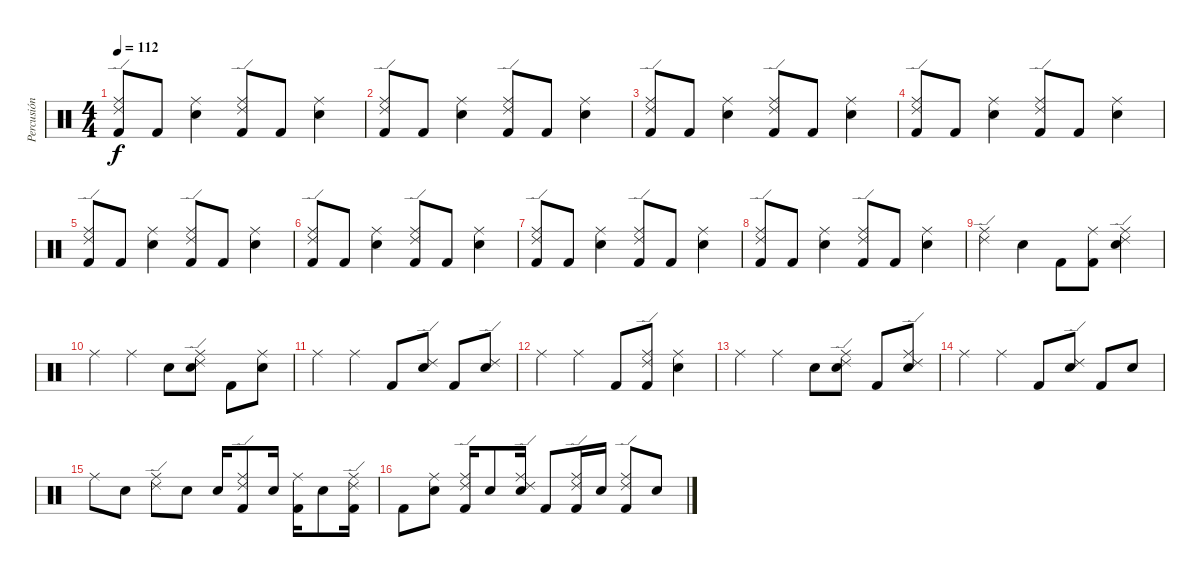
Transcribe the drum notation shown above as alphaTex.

\track ("Percusión" "Percusión") {instrument percussion}
\staff {score}
\articulation defaults
\ts (4 4)
\tempo 112
\clef neutral
\ks c
("Ride (edge) 2" "Ride (middle)" "Kick (hit) 2").8{dy f} "Kick (hit) 2".8 ("Ride (middle)" "Snare (hit) 2").4 ("Ride (edge) 2" "Ride (middle)" "Kick (hit) 2").8 "Kick (hit) 2".8 ("Ride (middle)" "Snare (hit) 2").4 |
("Ride (edge) 2" "Ride (middle)" "Kick (hit) 2").8 "Kick (hit) 2".8 ("Ride (middle)" "Snare (hit) 2").4 ("Ride (edge) 2" "Ride (middle)" "Kick (hit) 2").8 "Kick (hit) 2".8 ("Ride (middle)" "Snare (hit) 2").4 |
("Ride (edge) 2" "Ride (middle)" "Kick (hit) 2").8 "Kick (hit) 2".8 ("Ride (middle)" "Snare (hit) 2").4 ("Ride (edge) 2" "Ride (middle)" "Kick (hit) 2").8 "Kick (hit) 2".8 ("Ride (middle)" "Snare (hit) 2").4 |
("Ride (edge) 2" "Ride (middle)" "Kick (hit) 2").8 "Kick (hit) 2".8 ("Ride (middle)" "Snare (hit) 2").4 ("Ride (edge) 2" "Ride (middle)" "Kick (hit) 2").8 "Kick (hit) 2".8 ("Ride (middle)" "Snare (hit) 2").4 |
("Ride (edge) 2" "Ride (middle)" "Kick (hit) 2").8 "Kick (hit) 2".8 ("Ride (middle)" "Snare (hit) 2").4 ("Ride (edge) 2" "Ride (middle)" "Kick (hit) 2").8 "Kick (hit) 2".8 ("Ride (middle)" "Snare (hit) 2").4 |
("Ride (edge) 2" "Ride (middle)" "Kick (hit) 2").8 "Kick (hit) 2".8 ("Ride (middle)" "Snare (hit) 2").4 ("Ride (edge) 2" "Ride (middle)" "Kick (hit) 2").8 "Kick (hit) 2".8 ("Ride (middle)" "Snare (hit) 2").4 |
("Ride (edge) 2" "Ride (middle)" "Kick (hit) 2").8 "Kick (hit) 2".8 ("Ride (middle)" "Snare (hit) 2").4 ("Ride (edge) 2" "Ride (middle)" "Kick (hit) 2").8 "Kick (hit) 2".8 ("Ride (middle)" "Snare (hit) 2").4 |
("Ride (edge) 2" "Ride (middle)" "Kick (hit) 2").8 "Kick (hit) 2".8 ("Ride (middle)" "Snare (hit) 2").4 ("Ride (edge) 2" "Ride (middle)" "Kick (hit) 2").8 "Kick (hit) 2".8 ("Ride (middle)" "Snare (hit) 2").4 |
("Ride (edge) 2" "Ride (middle)").4 "Snare (hit)".4 "Kick (hit) 2".8 ("Ride (middle)" "Kick (hit) 2").8 ("Ride (edge) 2" "Ride (middle)" "Snare (hit) 2").4 |
"Ride (middle)".4 "Ride (middle)".4 "Snare (hit) 2".8 ("Ride (edge) 2" "Ride (middle)" "Snare (hit) 2").8 "Kick (hit) 2".8 ("Ride (middle)" "Snare (hit) 2").8 |
"Ride (middle)".4 "Ride (middle)".4 "Kick (hit) 2".8 ("Ride (edge) 2" "Snare (hit) 2").8 "Kick (hit) 2".8 ("Ride (edge) 2" "Snare (hit)").8 |
"Ride (middle)".4 "Ride (middle)".4 "Kick (hit) 2".8 ("Ride (edge) 2" "Ride (middle)" "Kick (hit) 2").8 ("Ride (middle)" "Snare (hit) 2").4 |
"Ride (middle)".4 "Ride (middle)".4 "Snare (hit) 2".8 ("Ride (edge) 2" "Ride (middle)" "Snare (hit) 2").8 "Kick (hit) 2".8 ("Ride (edge) 2" "Ride (middle)" "Snare (hit) 2").8 |
"Ride (middle)"{x}.4 "Ride (middle)".4 "Kick (hit) 2".8 ("Ride (edge) 2" "Snare (hit) 2").8 "Kick (hit) 2".8 "Snare (hit) 2".8 |
"Ride (middle)"{x}.8 "Snare (hit)"{x}.8 ("Ride (edge) 2"{x} "Ride (middle)").8 "Snare (hit)"{x}.8 "Snare (hit) 2".16 ("Ride (edge) 2" "Ride (middle)" "Kick (hit) 2").8 "Snare (hit) 2".16 ("Ride (middle)" "Kick (hit) 2").16 "Snare (hit) 2".8 ("Ride (edge) 2" "Ride (middle)" "Kick (hit) 2").16 |
"Kick (hit) 2".8 ("Ride (middle)" "Snare (hit) 2").8 ("Ride (edge) 2" "Ride (middle)" "Kick (hit) 2").16 "Snare (hit) 2".8 ("Ride (edge) 2" "Ride (middle)" "Snare (hit) 2").16 "Kick (hit) 2".8 ("Ride (edge) 2" "Ride (middle)" "Kick (hit) 2").16 "Snare (hit) 2".16 ("Ride (edge) 2" "Ride (middle)" "Kick (hit) 2").8 "Snare (hit) 2".8
